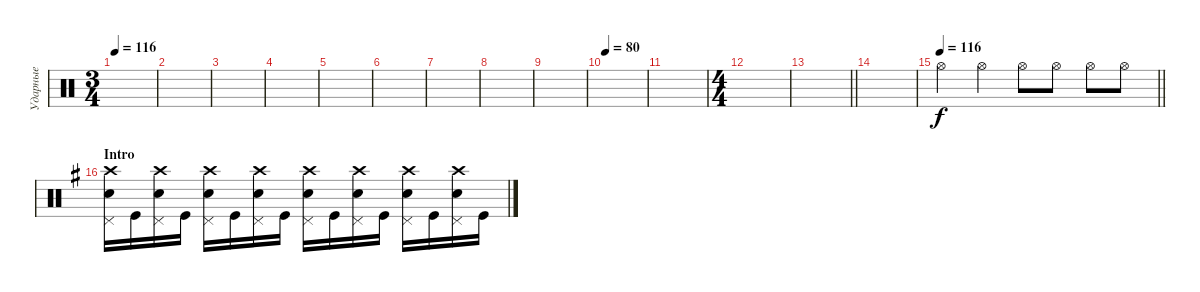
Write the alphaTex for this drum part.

\track ("Ударные" "Ударные") {instrument percussion}
\staff {score}
\articulation defaults
\ts (3 4)
\tempo 116
\clef neutral
\ks c
|
|
|
|
|
|
|
|
|
\tempo 80
|
|
\ts (4 4)
|
\barLineRight lightlight
|
|
\tempo 116
\barLineRight lightlight "Hi-Hat (open)".4 "Hi-Hat (open)".4 "Hi-Hat (open)".8 "Hi-Hat (open)".8 "Hi-Hat (open)".8 "Hi-Hat (open)".8
|
\section ("" "Intro")
\ks eminor
("Pedal Hi-Hat (hit)" "Snare (hit) 2" "Crash high (hit)").16 "Kick (hit)".16 ("Pedal Hi-Hat (hit)" "Snare (hit) 2" "Crash high (hit)").16 "Kick (hit)".16 ("Pedal Hi-Hat (hit)" "Snare (hit) 2" "Crash high (hit)").16 "Kick (hit)".16 ("Pedal Hi-Hat (hit)" "Snare (hit) 2" "Crash high (hit)").16 "Kick (hit)".16 ("Pedal Hi-Hat (hit)" "Snare (hit) 2" "Crash high (hit)").16 "Kick (hit)".16 ("Pedal Hi-Hat (hit)" "Snare (hit) 2" "Crash high (hit)").16 "Kick (hit)".16 ("Pedal Hi-Hat (hit)" "Snare (hit) 2" "Crash high (hit)").16 "Kick (hit)".16 ("Pedal Hi-Hat (hit)" "Snare (hit) 2" "Crash high (hit)").16 "Kick (hit)".16
